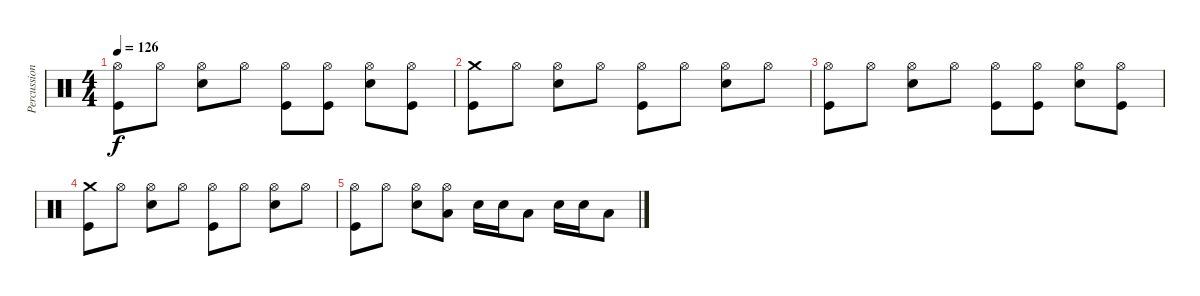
\track ("Percussion" "Percussion") {instrument percussion}
\staff {score}
\articulation defaults
\ts (4 4)
\tempo 126
\clef neutral
\ks c
("Kick (hit)" "Hi-Hat (open)").8{dy f} "Hi-Hat (open)".8 ("Snare (hit) 2" "Hi-Hat (open)").8 "Hi-Hat (open)".8 ("Kick (hit)" "Hi-Hat (open)").8 ("Kick (hit)" "Hi-Hat (open)").8 ("Snare (hit) 2" "Hi-Hat (open)").8 ("Kick (hit)" "Hi-Hat (open)").8 |
("Kick (hit)" "Crash medium (hit)").8 "Hi-Hat (open)".8 ("Snare (hit) 2" "Hi-Hat (open)").8 "Hi-Hat (open)".8 ("Kick (hit)" "Hi-Hat (open)").8 "Hi-Hat (open)".8 ("Snare (hit) 2" "Hi-Hat (open)").8 "Hi-Hat (open)".8 |
("Kick (hit)" "Hi-Hat (open)").8 "Hi-Hat (open)".8 ("Snare (hit) 2" "Hi-Hat (open)").8 "Hi-Hat (open)".8 ("Kick (hit)" "Hi-Hat (open)").8 ("Kick (hit)" "Hi-Hat (open)").8 ("Snare (hit) 2" "Hi-Hat (open)").8 ("Kick (hit)" "Hi-Hat (open)").8 |
("Kick (hit)" "Crash medium (hit)").8 "Hi-Hat (open)".8 ("Snare (hit) 2" "Hi-Hat (open)").8 "Hi-Hat (open)".8 ("Kick (hit)" "Hi-Hat (open)").8 "Hi-Hat (open)".8 ("Snare (hit) 2" "Hi-Hat (open)").8 "Hi-Hat (open)".8 |
("Kick (hit)" "Hi-Hat (open)").8 "Hi-Hat (open)".8 ("Snare (hit) 2" "Hi-Hat (open)").8 ("Low Tom (hit)" "Hi-Hat (open)").8 "Snare (hit) 2".16 "Snare (hit) 2".16 "Low Tom (hit)".8 "Snare (hit) 2".16 "Snare (hit) 2".16 "Low Tom (hit)".8
